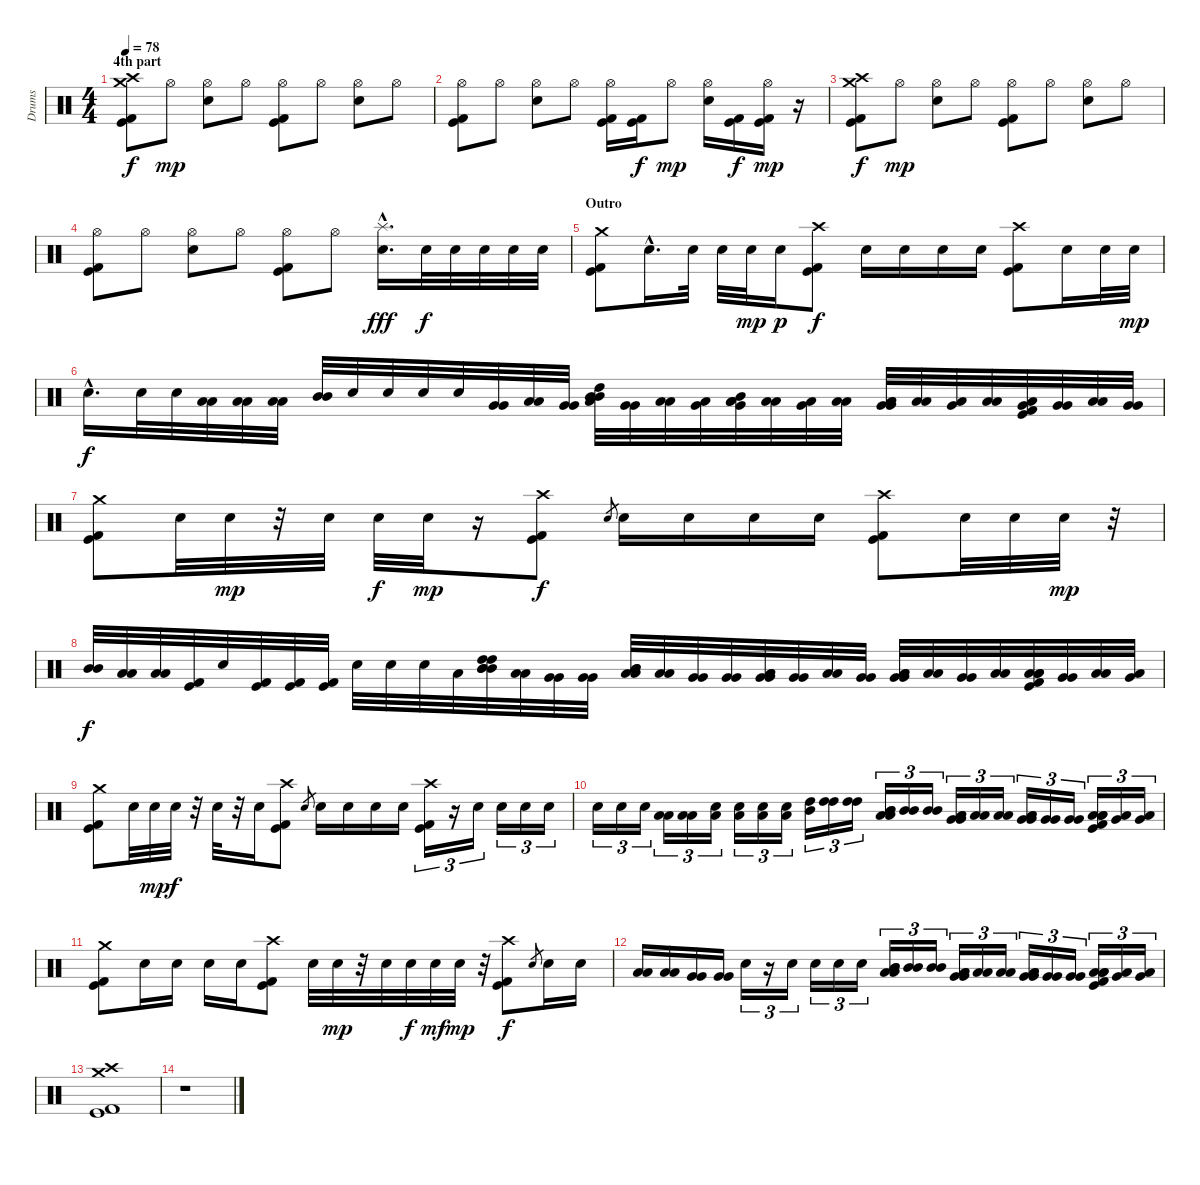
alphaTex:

\track ("Drums" "Drums") {instrument percussion}
\staff {score}
\articulation defaults
\ts (4 4)
\section ("" "4th part")
\tempo 78
\clef neutral
\ks c
("Crash medium (hit)" "Crash high (hit)" "Kick (hit)" "Kick (hit) 2").8{dy f} "Hi-Hat (open)".8{dy mp} ("Hi-Hat (open)" "Electric Snare (hit)").8 "Hi-Hat (open)".8 ("Hi-Hat (open)" "Kick (hit)" "Kick (hit) 2").8 "Hi-Hat (open)".8 ("Hi-Hat (open)" "Electric Snare (hit)").8 "Hi-Hat (open)".8 |
("Hi-Hat (open)" "Kick (hit)" "Kick (hit) 2").8 "Hi-Hat (open)".8 ("Hi-Hat (open)" "Electric Snare (hit)").8 "Hi-Hat (open)".8 ("Hi-Hat (open)" "Kick (hit)" "Kick (hit) 2").16 ("Kick (hit)" "Kick (hit) 2").16{dy f} "Hi-Hat (open)".8{dy mp} ("Hi-Hat (open)" "Electric Snare (hit)").16 ("Kick (hit)" "Kick (hit) 2").16{dy f} ("Hi-Hat (open)" "Kick (hit)" "Kick (hit) 2").16{dy mp} r.16 |
("Crash medium (hit)" "Crash high (hit)" "Kick (hit)" "Kick (hit) 2").8{dy f} "Hi-Hat (open)".8{dy mp} ("Hi-Hat (open)" "Electric Snare (hit)").8 "Hi-Hat (open)".8 ("Hi-Hat (open)" "Kick (hit)" "Kick (hit) 2").8 "Hi-Hat (open)".8 ("Hi-Hat (open)" "Electric Snare (hit)").8 "Hi-Hat (open)".8 |
("Hi-Hat (open)" "Kick (hit)" "Kick (hit) 2").8 "Hi-Hat (open)".8 ("Hi-Hat (open)" "Electric Snare (hit)").8 "Hi-Hat (open)".8 ("Hi-Hat (open)" "Kick (hit)" "Kick (hit) 2").8 "Hi-Hat (open)".8 ("Splash (hit)"{hac} "Electric Snare (hit)"{hac}).16{d dy fff} "Electric Snare (hit)".32{dy f} "Electric Snare (hit)".32 "Electric Snare (hit)".32 "Electric Snare (hit)".32 "Electric Snare (hit)".32 |
\section ("" "Outro")
("Crash medium (hit)" "Kick (hit)" "Kick (hit) 2").8 "Electric Snare (hit)"{hac}.16{d} "Electric Snare (hit)".32 "Electric Snare (hit)".32 "Electric Snare (hit)".32{dy mp} "Electric Snare (hit)".16{dy p} ("Crash high (hit)" "Kick (hit)" "Kick (hit) 2").8{dy f} "Electric Snare (hit)".16 "Electric Snare (hit)".16 "Electric Snare (hit)".16 "Electric Snare (hit)".16 ("Crash high (hit)" "Kick (hit)" "Kick (hit) 2").8 "Electric Snare (hit)".16 "Electric Snare (hit)".32 "Electric Snare (hit)".32{dy mp} |
"Electric Snare (hit)"{hac}.16{d dy f} "Electric Snare (hit)".32 "Electric Snare (hit)".32 ("Low Tom (hit)" "Low Tom (hit)").32 ("Low Tom (hit)" "Low Tom (hit)").32 ("Low Tom (hit)" "Low Tom (hit)").32 ("Mid Tom (hit)" "Mid Tom (hit)").32 "Electric Snare (hit)".32 "Electric Snare (hit)".32 "Electric Snare (hit)".32 "Electric Snare (hit)".32 ("Very Low Tom (hit)" "Very Low Tom (hit)").32 ("Low Floor Tom (hit)" "Low Floor Tom (hit)").32 ("Very Low Tom (hit)" "Very Low Tom (hit)").32 ("High Tom (hit)" "Mid Tom (hit)" "Mid Tom (hit)" "Low Tom (hit)").32 ("Very Low Tom (hit)" "Very Low Tom (hit)").32 ("Low Floor Tom (hit)" "Low Floor Tom (hit)").32 ("Low Tom (hit)" "Very Low Tom (hit)").32 ("Mid Tom (hit)" "Low Tom (hit)" "Low Tom (hit)" "Very Low Tom (hit)").32 ("Low Floor Tom (hit)" "Low Floor Tom (hit)").32 ("Low Tom (hit)" "Very Low Tom (hit)").32 ("Low Floor Tom (hit)" "Low Floor Tom (hit)").32 ("Low Tom (hit)" "Very Low Tom (hit)" "Very Low Tom (hit)" "Low Floor Tom (hit)").32 ("Low Floor Tom (hit)" "Low Floor Tom (hit)").32 ("Low Tom (hit)" "Very Low Tom (hit)").32 ("Low Floor Tom (hit)" "Low Floor Tom (hit)").32 ("Very Low Tom (hit)" "Low Floor Tom (hit)" "Kick (hit)" "Kick (hit) 2").32 ("Very Low Tom (hit)" "Very Low Tom (hit)").32 ("Low Floor Tom (hit)" "Low Floor Tom (hit)").32 ("Very Low Tom (hit)" "Very Low Tom (hit)").32 |
("Crash medium (hit)" "Kick (hit)" "Kick (hit) 2").8 "Electric Snare (hit)".32 "Electric Snare (hit)".32{dy mp} r.32 "Electric Snare (hit)".32 "Electric Snare (hit)".32{dy f} "Electric Snare (hit)".32{dy mp} r.16 ("Crash high (hit)" "Kick (hit)" "Kick (hit) 2").8{dy f} "Electric Snare (hit)".8{gr} "Electric Snare (hit)".16 "Electric Snare (hit)".16 "Electric Snare (hit)".16 "Electric Snare (hit)".16 ("Crash high (hit)" "Kick (hit)" "Kick (hit) 2").8 "Electric Snare (hit)".32 "Electric Snare (hit)".32 "Electric Snare (hit)".32{dy mp} r.32 |
("Mid Tom (hit)" "Mid Tom (hit)").32{dy f} ("Low Tom (hit)" "Low Tom (hit)").32 ("Low Tom (hit)" "Low Tom (hit)").32 ("Kick (hit)" "Kick (hit) 2").32 "Electric Snare (hit)".32 ("Kick (hit)" "Kick (hit) 2").32 ("Kick (hit)" "Kick (hit) 2").32 ("Kick (hit)" "Kick (hit) 2").32 "Electric Snare (hit)".32 "Electric Snare (hit)".32 "Electric Snare (hit)".32 "Low Tom (hit)".32 ("High Tom (hit)" "High Tom (hit)" "Mid Tom (hit)" "Mid Tom (hit)" "Mid Tom (hit)").32 ("Low Floor Tom (hit)" "Low Floor Tom (hit)").32 ("Very Low Tom (hit)" "Very Low Tom (hit)").32 ("Very Low Tom (hit)" "Very Low Tom (hit)").32 ("Mid Tom (hit)" "Mid Tom (hit)" "Low Tom (hit)" "Low Tom (hit)").32 ("Low Floor Tom (hit)" "Low Floor Tom (hit)").32 ("Very Low Tom (hit)" "Very Low Tom (hit)").32 ("Very Low Tom (hit)" "Very Low Tom (hit)").32 ("Low Tom (hit)" "Low Tom (hit)" "Very Low Tom (hit)" "Very Low Tom (hit)").32 ("Very Low Tom (hit)" "Very Low Tom (hit)").32 ("Low Floor Tom (hit)" "Low Floor Tom (hit)").32 ("Very Low Tom (hit)" "Very Low Tom (hit)").32 ("Very Low Tom (hit)" "Very Low Tom (hit)" "Low Floor Tom (hit)" "Low Floor Tom (hit)").32 ("Low Floor Tom (hit)" "Low Floor Tom (hit)").32 ("Very Low Tom (hit)" "Very Low Tom (hit)").32 ("Low Floor Tom (hit)" "Low Floor Tom (hit)").32 ("Low Floor Tom (hit)" "Low Floor Tom (hit)" "Low Floor Tom (hit)" "Kick (hit)" "Kick (hit) 2").32 ("Very Low Tom (hit)" "Very Low Tom (hit)").32 ("Low Floor Tom (hit)" "Low Floor Tom (hit)").32 ("Low Floor Tom (hit)" "Very Low Tom (hit)").32 |
("Crash medium (hit)" "Kick (hit)" "Kick (hit) 2").8 "Electric Snare (hit)".32 "Electric Snare (hit)".32{dy mp} "Electric Snare (hit)".32{dy f} r.32 "Electric Snare (hit)".32 r.32 "Electric Snare (hit)".16 ("Crash high (hit)" "Kick (hit)" "Kick (hit) 2").8 "Electric Snare (hit)".8{gr} "Electric Snare (hit)".16 "Electric Snare (hit)".16 "Electric Snare (hit)".16 "Electric Snare (hit)".16 ("Crash high (hit)" "Kick (hit)" "Kick (hit) 2").16{tu (3 2)} r.16{tu (3 2)} "Electric Snare (hit)".16{tu (3 2)} "Electric Snare (hit)".16{tu (3 2)} "Electric Snare (hit)".16{tu (3 2)} "Electric Snare (hit)".16{tu (3 2)} |
"Electric Snare (hit)".16{tu (3 2)} "Electric Snare (hit)".16{tu (3 2)} "Electric Snare (hit)".16{tu (3 2)} ("Low Tom (hit)" "Low Tom (hit)").16{tu (3 2)} ("Low Tom (hit)" "Low Tom (hit)").16{tu (3 2)} ("Electric Snare (hit)" "Low Tom (hit)").16{tu (3 2)} ("Electric Snare (hit)" "Low Tom (hit)").16{tu (3 2)} ("Electric Snare (hit)" "Low Tom (hit)").16{tu (3 2)} ("Electric Snare (hit)" "Low Tom (hit)").16{tu (3 2)} ("High Tom (hit)" "Mid Tom (hit)").16{tu (3 2)} ("High Tom (hit)" "High Tom (hit)").16{tu (3 2)} ("High Tom (hit)" "High Tom (hit)").16{tu (3 2)} ("Mid Tom (hit)" "Mid Tom (hit)" "Low Tom (hit)" "Low Tom (hit)").16{tu (3 2)} ("Mid Tom (hit)" "Mid Tom (hit)").16{tu (3 2)} ("Mid Tom (hit)" "Mid Tom (hit)").16{tu (3 2)} ("Low Tom (hit)" "Low Tom (hit)" "Very Low Tom (hit)" "Very Low Tom (hit)").16{tu (3 2)} ("Low Tom (hit)" "Low Tom (hit)").16{tu (3 2)} ("Low Tom (hit)" "Low Tom (hit)").16{tu (3 2)} ("Very Low Tom (hit)" "Very Low Tom (hit)" "Low Floor Tom (hit)" "Low Floor Tom (hit)").16{tu (3 2)} ("Very Low Tom (hit)" "Very Low Tom (hit)").16{tu (3 2)} ("Very Low Tom (hit)" "Very Low Tom (hit)").16{tu (3 2)} ("Low Floor Tom (hit)" "Low Floor Tom (hit)" "Low Floor Tom (hit)" "Kick (hit)" "Kick (hit) 2").16{tu (3 2)} ("Low Floor Tom (hit)" "Very Low Tom (hit)").16{tu (3 2)} ("Low Floor Tom (hit)" "Very Low Tom (hit)").16{tu (3 2)} |
("Crash medium (hit)" "Kick (hit)" "Kick (hit) 2").8 "Electric Snare (hit)".16 "Electric Snare (hit)".16 "Electric Snare (hit)".16 "Electric Snare (hit)".16 ("Crash high (hit)" "Kick (hit)" "Kick (hit) 2").8 "Electric Snare (hit)".32 "Electric Snare (hit)".32{dy mp} r.32 "Electric Snare (hit)".32 "Electric Snare (hit)".32{dy f} "Electric Snare (hit)".32{dy mf} "Electric Snare (hit)".32{dy mp} r.32 ("Crash high (hit)" "Kick (hit)" "Kick (hit) 2").8{dy f} "Electric Snare (hit)".8{gr} "Electric Snare (hit)".16 "Electric Snare (hit)".16 |
("Low Tom (hit)" "Low Tom (hit)").16 ("Low Tom (hit)" "Low Tom (hit)").16 ("Very Low Tom (hit)" "Very Low Tom (hit)").16 ("Very Low Tom (hit)" "Very Low Tom (hit)").16 "Electric Snare (hit)".16{tu (3 2)} r.16{tu (3 2)} "Electric Snare (hit)".16{tu (3 2)} "Electric Snare (hit)".16{tu (3 2)} "Electric Snare (hit)".16{tu (3 2)} "Electric Snare (hit)".16{tu (3 2)} ("Mid Tom (hit)" "Mid Tom (hit)" "Low Tom (hit)" "Low Tom (hit)").16{tu (3 2)} ("Mid Tom (hit)" "Mid Tom (hit)").16{tu (3 2)} ("Mid Tom (hit)" "Mid Tom (hit)").16{tu (3 2)} ("Low Tom (hit)" "Low Tom (hit)" "Very Low Tom (hit)" "Very Low Tom (hit)").16{tu (3 2)} ("Low Tom (hit)" "Low Tom (hit)").16{tu (3 2)} ("Low Tom (hit)" "Low Tom (hit)").16{tu (3 2)} ("Very Low Tom (hit)" "Very Low Tom (hit)" "Low Floor Tom (hit)" "Low Floor Tom (hit)").16{tu (3 2)} ("Very Low Tom (hit)" "Very Low Tom (hit)").16{tu (3 2)} ("Very Low Tom (hit)" "Very Low Tom (hit)").16{tu (3 2)} ("Low Floor Tom (hit)" "Low Floor Tom (hit)" "Low Floor Tom (hit)" "Kick (hit)" "Kick (hit) 2").16{tu (3 2)} ("Low Floor Tom (hit)" "Very Low Tom (hit)").16{tu (3 2)} ("Low Floor Tom (hit)" "Very Low Tom (hit)").16{tu (3 2)} |
("Crash medium (hit)" "Crash high (hit)" "Kick (hit)" "Kick (hit) 2").1{volume 0} |
r.1
